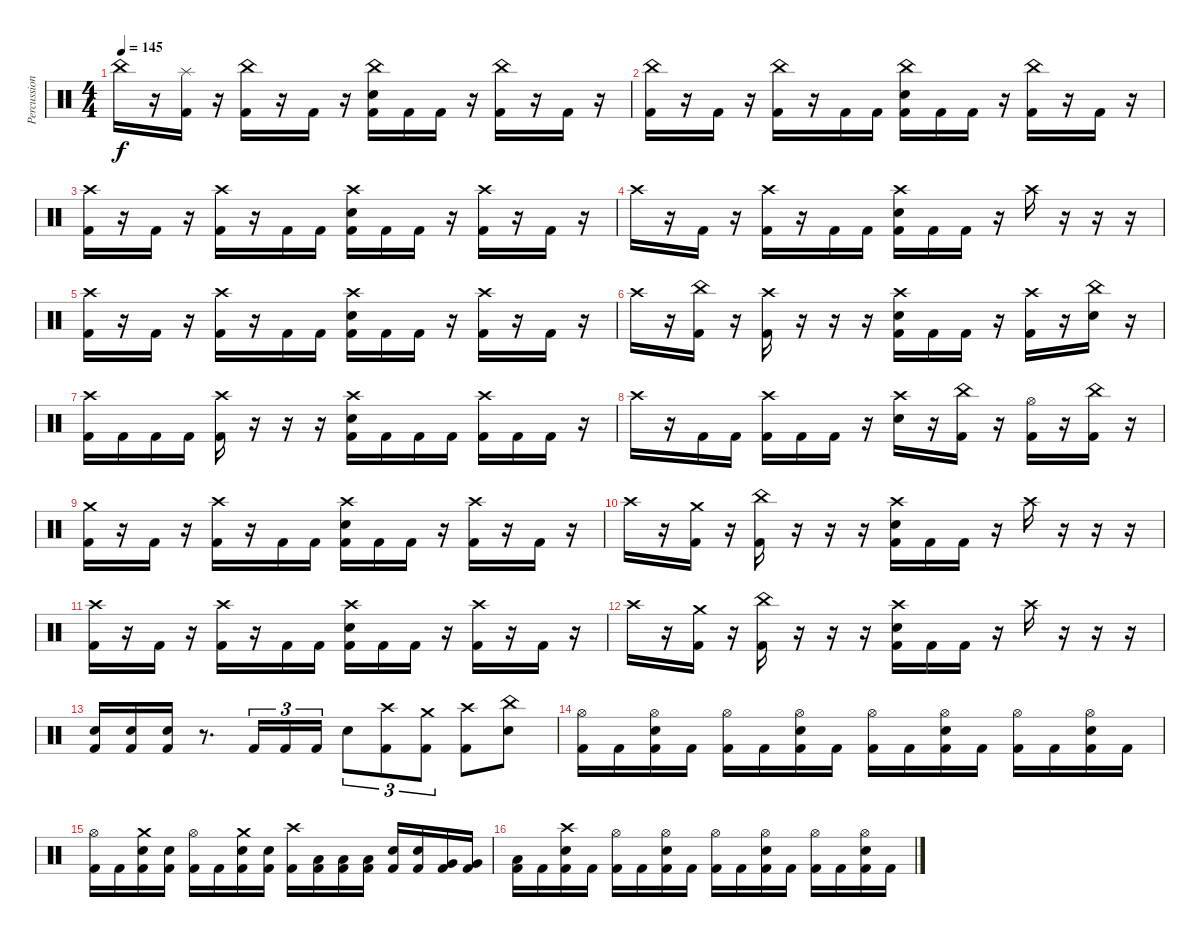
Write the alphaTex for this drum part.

\track ("Percussion" "Percussion") {instrument percussion}
\staff {score}
\articulation defaults
\ts (4 4)
\tempo 145
\clef neutral
\ks c "China (hit)".16{dy f}
r.16 ("Splash (hit)" "Kick (hit) 2").16 r.16 ("China (hit)" "Kick (hit) 2").16 r.16 "Kick (hit) 2".16 r.16 ("China (hit)" "Electric Snare (hit)" "Kick (hit) 2").16 "Kick (hit) 2".16 "Kick (hit) 2".16 r.16 ("China (hit)" "Kick (hit) 2").16 r.16 "Kick (hit) 2".16 r.16 |
("China (hit)" "Kick (hit) 2").16 r.16 "Kick (hit) 2".16 r.16 ("China (hit)" "Kick (hit) 2").16 r.16 "Kick (hit) 2".16 "Kick (hit) 2".16 ("China (hit)" "Electric Snare (hit)" "Kick (hit) 2").16 "Kick (hit) 2".16 "Kick (hit) 2".16 r.16 ("China (hit)" "Kick (hit) 2").16 r.16 "Kick (hit) 2".16 r.16 |
("Crash high (hit)" "Kick (hit) 2").16 r.16 "Kick (hit) 2".16 r.16 ("Crash high (hit)" "Kick (hit) 2").16 r.16 "Kick (hit) 2".16 "Kick (hit) 2".16 ("Crash high (hit)" "Electric Snare (hit)" "Kick (hit) 2").16 "Kick (hit) 2".16 "Kick (hit) 2".16 r.16 ("Crash high (hit)" "Kick (hit) 2").16 r.16 "Kick (hit) 2".16 r.16 |
"Crash high (hit)".16 r.16 "Kick (hit) 2".16 r.16 ("Crash high (hit)" "Kick (hit) 2").16 r.16 "Kick (hit) 2".16 "Kick (hit) 2".16 ("Crash high (hit)" "Electric Snare (hit)" "Kick (hit) 2").16 "Kick (hit) 2".16 "Kick (hit) 2".16 r.16 "Crash high (hit)".16 r.16 r.16 r.16 |
("Crash high (hit)" "Kick (hit) 2").16 r.16 "Kick (hit) 2".16 r.16 ("Crash high (hit)" "Kick (hit) 2").16 r.16 "Kick (hit) 2".16 "Kick (hit) 2".16 ("Crash high (hit)" "Electric Snare (hit)" "Kick (hit) 2").16 "Kick (hit) 2".16 "Kick (hit) 2".16 r.16 ("Crash high (hit)" "Kick (hit) 2").16 r.16 "Kick (hit) 2".16 r.16 |
"Crash high (hit)".16 r.16 ("China (hit)" "Kick (hit) 2").16 r.16 ("Crash high (hit)" "Kick (hit) 2").16 r.16 r.16 r.16 ("Crash high (hit)" "Electric Snare (hit)" "Kick (hit) 2").16 "Kick (hit) 2".16 "Kick (hit) 2".16 r.16 ("Crash high (hit)" "Kick (hit) 2").16 r.16 ("China (hit)" "Electric Snare (hit)").16 r.16 |
("Crash high (hit)" "Kick (hit) 2").16 "Kick (hit) 2".16 "Kick (hit) 2".16 "Kick (hit) 2".16 ("Crash high (hit)" "Kick (hit) 2").16 r.16 r.16 r.16 ("Crash high (hit)" "Electric Snare (hit)" "Kick (hit) 2").16 "Kick (hit) 2".16 "Kick (hit) 2".16 "Kick (hit) 2".16 ("Crash high (hit)" "Kick (hit) 2").16 "Kick (hit) 2".16 "Kick (hit) 2".16 r.16 |
"Crash high (hit)".16 r.16 "Kick (hit) 2".16 "Kick (hit) 2".16 ("Crash high (hit)" "Kick (hit) 2").16 "Kick (hit) 2".16 "Kick (hit) 2".16 r.16 ("Crash high (hit)" "Electric Snare (hit)").16 r.16 ("China (hit)" "Kick (hit) 2").16 r.16 ("Hi-Hat (open)" "Kick (hit) 2").16 r.16 ("China (hit)" "Kick (hit) 2").16 r.16 |
("Crash medium (hit)" "Kick (hit) 2").16 r.16 "Kick (hit) 2".16 r.16 ("Crash high (hit)" "Kick (hit) 2").16 r.16 "Kick (hit) 2".16 "Kick (hit) 2".16 ("Crash high (hit)" "Electric Snare (hit)" "Kick (hit) 2").16 "Kick (hit) 2".16 "Kick (hit) 2".16 r.16 ("Crash high (hit)" "Kick (hit) 2").16 r.16 "Kick (hit) 2".16 r.16 |
"Crash high (hit)".16 r.16 ("Crash medium (hit)" "Kick (hit) 2").16 r.16 ("China (hit)" "Kick (hit) 2").16 r.16 r.16 r.16 ("Crash high (hit)" "Electric Snare (hit)" "Kick (hit) 2").16 "Kick (hit) 2".16 "Kick (hit) 2".16 r.16 "Crash high (hit)".16 r.16 r.16 r.16 |
("Crash high (hit)" "Kick (hit) 2").16 r.16 "Kick (hit) 2".16 r.16 ("Crash high (hit)" "Kick (hit) 2").16 r.16 "Kick (hit) 2".16 "Kick (hit) 2".16 ("Crash high (hit)" "Electric Snare (hit)" "Kick (hit) 2").16 "Kick (hit) 2".16 "Kick (hit) 2".16 r.16 ("Crash high (hit)" "Kick (hit) 2").16 r.16 "Kick (hit) 2".16 r.16 |
"Crash high (hit)".16 r.16 ("Crash medium (hit)" "Kick (hit) 2").16 r.16 ("China (hit)" "Kick (hit) 2").16 r.16 r.16 r.16 ("Crash high (hit)" "Electric Snare (hit)" "Kick (hit) 2").16 "Kick (hit) 2".16 "Kick (hit) 2".16 r.16 "Crash high (hit)".16 r.16 r.16 r.16 |
("Electric Snare (hit)" "Kick (hit) 2").16 ("Electric Snare (hit)" "Kick (hit) 2").16 ("Electric Snare (hit)" "Kick (hit) 2").16 r.8{d} "Kick (hit) 2".16{tu (3 2)} "Kick (hit) 2".16{tu (3 2)} "Kick (hit) 2".16{tu (3 2)} "Electric Snare (hit)".8{tu (3 2)} ("Crash high (hit)" "Kick (hit) 2").8{tu (3 2)} ("Crash medium (hit)" "Kick (hit) 2").8{tu (3 2)} ("Crash high (hit)" "Kick (hit) 2").8 ("China (hit)" "Electric Snare (hit)").8 |
("Hi-Hat (open)" "Kick (hit) 2").16 "Kick (hit) 2".16 ("Hi-Hat (open)" "Electric Snare (hit)" "Kick (hit) 2").16 "Kick (hit) 2".16 ("Hi-Hat (open)" "Kick (hit) 2").16 "Kick (hit) 2".16 ("Hi-Hat (open)" "Electric Snare (hit)" "Kick (hit) 2").16 "Kick (hit) 2".16 ("Hi-Hat (open)" "Kick (hit) 2").16 "Kick (hit) 2".16 ("Hi-Hat (open)" "Electric Snare (hit)" "Kick (hit) 2").16 "Kick (hit) 2".16 ("Hi-Hat (open)" "Kick (hit) 2").16 "Kick (hit) 2".16 ("Hi-Hat (open)" "Electric Snare (hit)" "Kick (hit) 2").16 "Kick (hit) 2".16 |
("Hi-Hat (open)" "Kick (hit) 2").16 "Kick (hit) 2".16 ("Crash medium (hit)" "Electric Snare (hit)" "Kick (hit) 2").16 ("Electric Snare (hit)" "Kick (hit) 2").16 ("Hi-Hat (open)" "Kick (hit) 2").16 "Kick (hit) 2".16 ("Crash medium (hit)" "Electric Snare (hit)" "Kick (hit) 2").16 ("Electric Snare (hit)" "Kick (hit) 2").16 ("Crash high (hit)" "Kick (hit) 2").16 ("Low Tom (hit)" "Kick (hit) 2").16 ("Low Tom (hit)" "Kick (hit) 2").16 ("Low Tom (hit)" "Kick (hit) 2").16 ("Electric Snare (hit)" "Kick (hit) 2").16 ("Electric Snare (hit)" "Kick (hit) 2").16 ("Very Low Tom (hit)" "Kick (hit) 2").16 ("Very Low Tom (hit)" "Kick (hit) 2").16 |
("Low Floor Tom (hit)" "Kick (hit) 2").16 "Kick (hit) 2".16 ("Crash high (hit)" "Electric Snare (hit)" "Kick (hit) 2").16 "Kick (hit) 2".16 ("Hi-Hat (open)" "Kick (hit) 2").16 "Kick (hit) 2".16 ("Hi-Hat (open)" "Electric Snare (hit)" "Kick (hit) 2").16 "Kick (hit) 2".16 ("Hi-Hat (open)" "Kick (hit) 2").16 "Kick (hit) 2".16 ("Hi-Hat (open)" "Electric Snare (hit)" "Kick (hit) 2").16 "Kick (hit) 2".16 ("Hi-Hat (open)" "Kick (hit) 2").16 "Kick (hit) 2".16 ("Hi-Hat (open)" "Electric Snare (hit)" "Kick (hit) 2").16 "Kick (hit) 2".16
